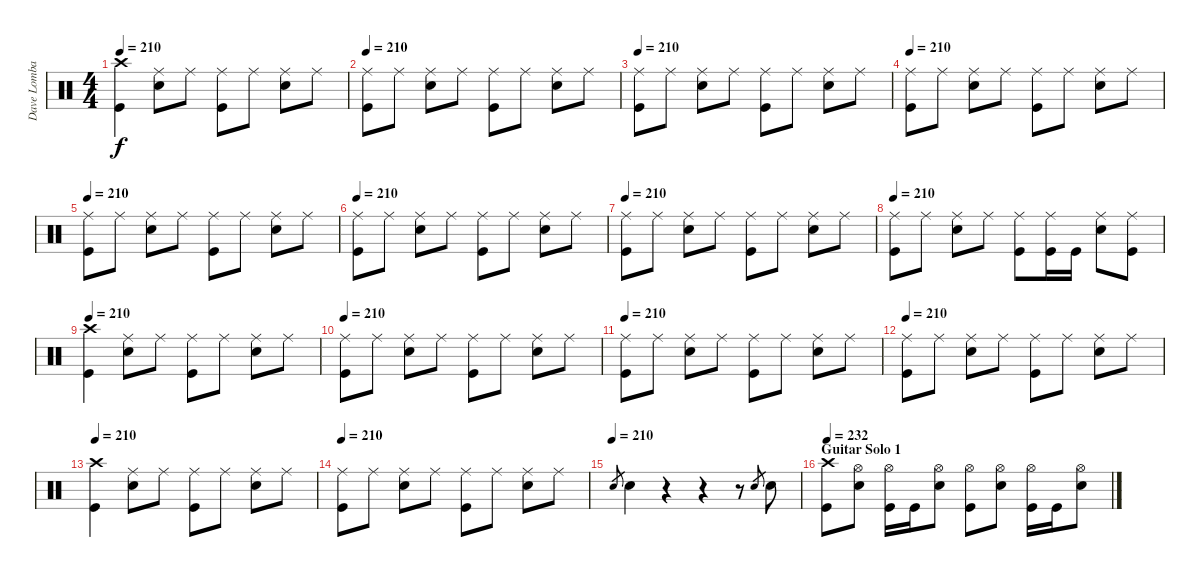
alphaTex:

\track ("Dave Lombardo" "Dave Lomba") {instrument percussion}
\staff {score}
\articulation defaults
\ts (4 4)
\tempo 210
\clef neutral
\ks c
("Crash high (hit)" "Kick (hit)").4{dy f} ("Ride (middle)" "Snare (hit) 2").8 "Ride (middle)".8 ("Ride (middle)" "Kick (hit)").8 "Ride (middle)".8 ("Ride (middle)" "Snare (hit) 2").8 "Ride (middle)".8 |
\tempo 210
("Ride (middle)" "Kick (hit)").8 "Ride (middle)".8 ("Ride (middle)" "Snare (hit) 2").8 "Ride (middle)".8 ("Ride (middle)" "Kick (hit)").8 "Ride (middle)".8 ("Ride (middle)" "Snare (hit) 2").8 "Ride (middle)".8 |
\tempo 210
("Ride (middle)" "Kick (hit)").8 "Ride (middle)".8 ("Ride (middle)" "Snare (hit) 2").8 "Ride (middle)".8 ("Ride (middle)" "Kick (hit)").8 "Ride (middle)".8 ("Ride (middle)" "Snare (hit) 2").8 "Ride (middle)".8 |
\tempo 210
("Ride (middle)" "Kick (hit)").8 "Ride (middle)".8 ("Ride (middle)" "Snare (hit) 2").8 "Ride (middle)".8 ("Ride (middle)" "Kick (hit)").8 "Ride (middle)".8 ("Ride (middle)" "Snare (hit) 2").8 "Ride (middle)".8 |
\tempo 210
("Ride (middle)" "Kick (hit)").8 "Ride (middle)".8 ("Ride (middle)" "Snare (hit) 2").8 "Ride (middle)".8 ("Ride (middle)" "Kick (hit)").8 "Ride (middle)".8 ("Ride (middle)" "Snare (hit) 2").8 "Ride (middle)".8 |
\tempo 210
("Ride (middle)" "Kick (hit)").8 "Ride (middle)".8 ("Ride (middle)" "Snare (hit) 2").8 "Ride (middle)".8 ("Ride (middle)" "Kick (hit)").8 "Ride (middle)".8 ("Ride (middle)" "Snare (hit) 2").8 "Ride (middle)".8 |
\tempo 210
("Ride (middle)" "Kick (hit)").8 "Ride (middle)".8 ("Ride (middle)" "Snare (hit) 2").8 "Ride (middle)".8 ("Ride (middle)" "Kick (hit)").8 "Ride (middle)".8 ("Ride (middle)" "Snare (hit) 2").8 "Ride (middle)".8 |
\tempo 210
("Ride (middle)" "Kick (hit)").8 "Ride (middle)".8 ("Ride (middle)" "Snare (hit) 2").8 "Ride (middle)".8 ("Ride (middle)" "Kick (hit)").8 ("Ride (middle)" "Kick (hit)").16 "Kick (hit)".16 ("Ride (middle)" "Snare (hit) 2").8 ("Ride (middle)" "Kick (hit)").8 |
\tempo 210
("Crash high (hit)" "Kick (hit)").4 ("Ride (middle)" "Snare (hit) 2").8 "Ride (middle)".8 ("Ride (middle)" "Kick (hit)").8 "Ride (middle)".8 ("Ride (middle)" "Snare (hit) 2").8 "Ride (middle)".8 |
\tempo 210
("Ride (middle)" "Kick (hit)").8 "Ride (middle)".8 ("Ride (middle)" "Snare (hit) 2").8 "Ride (middle)".8 ("Ride (middle)" "Kick (hit)").8 "Ride (middle)".8 ("Ride (middle)" "Snare (hit) 2").8 "Ride (middle)".8 |
\tempo 210
("Ride (middle)" "Kick (hit)").8 "Ride (middle)".8 ("Ride (middle)" "Snare (hit) 2").8 "Ride (middle)".8 ("Ride (middle)" "Kick (hit)").8 "Ride (middle)".8 ("Ride (middle)" "Snare (hit) 2").8 "Ride (middle)".8 |
\tempo 210
("Ride (middle)" "Kick (hit)").8 "Ride (middle)".8 ("Ride (middle)" "Snare (hit) 2").8 "Ride (middle)".8 ("Ride (middle)" "Kick (hit)").8 "Ride (middle)".8 ("Ride (middle)" "Snare (hit) 2").8 "Ride (middle)".8 |
\tempo 210
("Crash high (hit)" "Kick (hit)").4 ("Ride (middle)" "Snare (hit) 2").8 "Ride (middle)".8 ("Ride (middle)" "Kick (hit)").8 "Ride (middle)".8 ("Ride (middle)" "Snare (hit) 2").8 "Ride (middle)".8 |
\tempo 210
("Ride (middle)" "Kick (hit)").8 "Ride (middle)".8 ("Ride (middle)" "Snare (hit) 2").8 "Ride (middle)".8 ("Ride (middle)" "Kick (hit)").8 "Ride (middle)".8 ("Ride (middle)" "Snare (hit) 2").8 "Ride (middle)".8 |
\tempo (210)
"Snare (hit) 2".8{gr} "Snare (hit) 2".4 r.4 r.4 r.8 "Snare (hit) 2".8{gr} "Snare (hit) 2".8 |
\section ("" "Guitar Solo 1")
\tempo 232
("Crash high (hit)" "Kick (hit)").8 ("Hi-Hat (open)" "Snare (hit) 2").8 ("Hi-Hat (open)" "Kick (hit)").16 "Kick (hit)".16 ("Hi-Hat (open)" "Snare (hit) 2").8 ("Hi-Hat (open)" "Kick (hit)").8 ("Hi-Hat (open)" "Snare (hit) 2").8 ("Hi-Hat (open)" "Kick (hit)").16 "Kick (hit)".16 ("Hi-Hat (open)" "Snare (hit) 2").8
